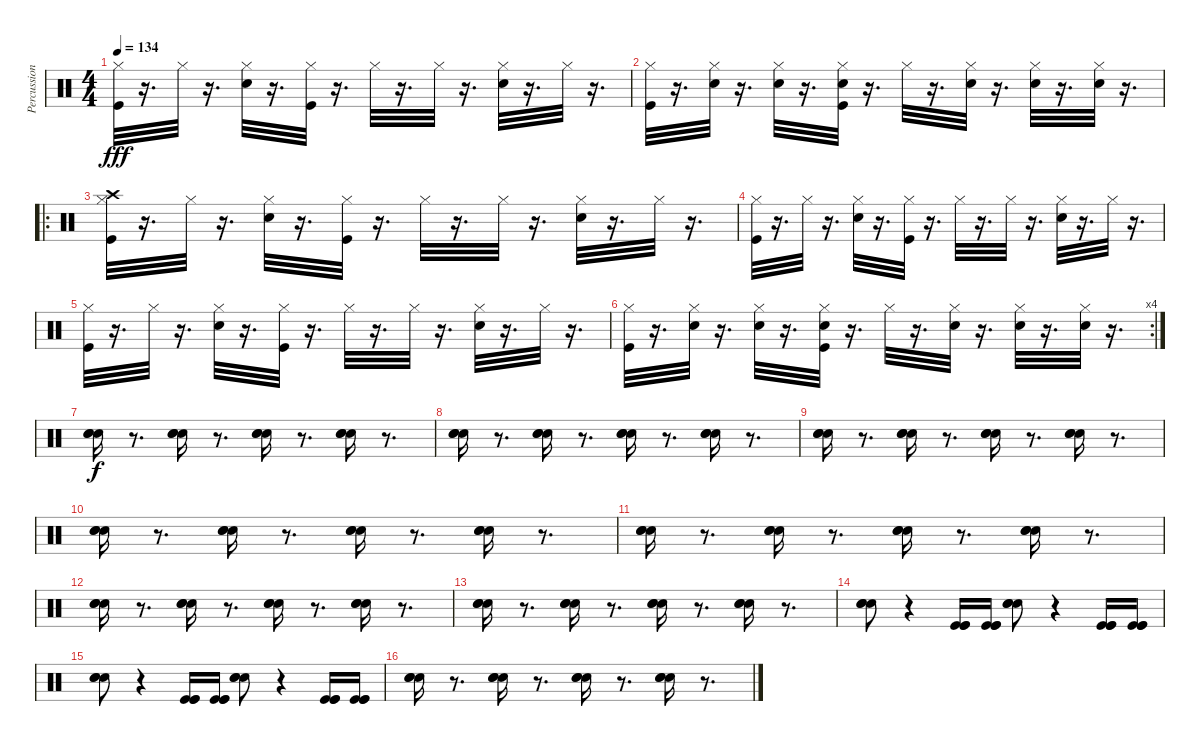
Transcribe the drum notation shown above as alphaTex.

\track ("Percussion (Rico)" "Percussion") {instrument percussion}
\staff {score}
\articulation defaults
\ts (4 4)
\tempo 134
\clef neutral
\ks c
("Kick (hit)" "Hi-Hat (closed)").32{dy fff} r.16{d} "Hi-Hat (closed)".32 r.16{d} ("Electric Snare (hit)" "Hi-Hat (closed)").32 r.16{d} ("Kick (hit)" "Hi-Hat (closed)").32 r.16{d} "Hi-Hat (closed)".32 r.16{d} "Hi-Hat (closed)".32 r.16{d} ("Electric Snare (hit)" "Hi-Hat (closed)").32 r.16{d} "Hi-Hat (closed)".32 r.16{d} |
("Kick (hit)" "Hi-Hat (closed)").32 r.16{d} ("Hi-Hat (closed)" "Electric Snare (hit)").32 r.16{d} ("Electric Snare (hit)" "Hi-Hat (closed)").32 r.16{d} ("Kick (hit)" "Hi-Hat (closed)" "Electric Snare (hit)").32 r.16{d} "Hi-Hat (closed)".32 r.16{d} ("Hi-Hat (closed)" "Electric Snare (hit)").32 r.16{d} ("Electric Snare (hit)" "Hi-Hat (closed)").32 r.16{d} ("Hi-Hat (closed)" "Electric Snare (hit)").32 r.16{d} |
\ro
("Kick (hit)" "Hi-Hat (closed)" "Crash high (hit)").32 r.16{d} "Hi-Hat (closed)".32 r.16{d} ("Electric Snare (hit)" "Hi-Hat (closed)").32 r.16{d} ("Kick (hit)" "Hi-Hat (closed)").32 r.16{d} "Hi-Hat (closed)".32 r.16{d} "Hi-Hat (closed)".32 r.16{d} ("Electric Snare (hit)" "Hi-Hat (closed)").32 r.16{d} "Hi-Hat (closed)".32 r.16{d} |
("Kick (hit)" "Hi-Hat (closed)").32 r.16{d} "Hi-Hat (closed)".32 r.16{d} ("Electric Snare (hit)" "Hi-Hat (closed)").32 r.16{d} ("Kick (hit)" "Hi-Hat (closed)").32 r.16{d} "Hi-Hat (closed)".32 r.16{d} "Hi-Hat (closed)".32 r.16{d} ("Electric Snare (hit)" "Hi-Hat (closed)").32 r.16{d} "Hi-Hat (closed)".32 r.16{d} |
("Kick (hit)" "Hi-Hat (closed)").32 r.16{d} "Hi-Hat (closed)".32 r.16{d} ("Electric Snare (hit)" "Hi-Hat (closed)").32 r.16{d} ("Kick (hit)" "Hi-Hat (closed)").32 r.16{d} "Hi-Hat (closed)".32 r.16{d} "Hi-Hat (closed)".32 r.16{d} ("Electric Snare (hit)" "Hi-Hat (closed)").32 r.16{d} "Hi-Hat (closed)".32 r.16{d} |
\rc 4
("Kick (hit)" "Hi-Hat (closed)").32 r.16{d} ("Hi-Hat (closed)" "Electric Snare (hit)").32 r.16{d} ("Electric Snare (hit)" "Hi-Hat (closed)").32 r.16{d} ("Kick (hit)" "Hi-Hat (closed)" "Electric Snare (hit)").32 r.16{d} "Hi-Hat (closed)".32 r.16{d} ("Hi-Hat (closed)" "Electric Snare (hit)").32 r.16{d} ("Electric Snare (hit)" "Hi-Hat (closed)").32 r.16{d} ("Hi-Hat (closed)" "Electric Snare (hit)").32 r.16{d} |
("Electric Snare (hit)" "Electric Snare (hit)" "Electric Snare (hit)").16{dy f} r.8{d} ("Electric Snare (hit)" "Electric Snare (hit)" "Electric Snare (hit)").16 r.8{d} ("Electric Snare (hit)" "Electric Snare (hit)" "Electric Snare (hit)").16 r.8{d} ("Electric Snare (hit)" "Electric Snare (hit)" "Electric Snare (hit)").16 r.8{d} |
("Electric Snare (hit)" "Electric Snare (hit)" "Electric Snare (hit)").16 r.8{d} ("Electric Snare (hit)" "Electric Snare (hit)" "Electric Snare (hit)").16 r.8{d} ("Electric Snare (hit)" "Electric Snare (hit)" "Electric Snare (hit)").16 r.8{d} ("Electric Snare (hit)" "Electric Snare (hit)" "Electric Snare (hit)").16 r.8{d} |
("Electric Snare (hit)" "Electric Snare (hit)" "Electric Snare (hit)").16 r.8{d} ("Electric Snare (hit)" "Electric Snare (hit)" "Electric Snare (hit)").16 r.8{d} ("Electric Snare (hit)" "Electric Snare (hit)" "Electric Snare (hit)").16 r.8{d} ("Electric Snare (hit)" "Electric Snare (hit)" "Electric Snare (hit)").16 r.8{d} |
("Electric Snare (hit)" "Electric Snare (hit)" "Electric Snare (hit)").16 r.8{d} ("Electric Snare (hit)" "Electric Snare (hit)" "Electric Snare (hit)").16 r.8{d} ("Electric Snare (hit)" "Electric Snare (hit)" "Electric Snare (hit)").16 r.8{d} ("Electric Snare (hit)" "Electric Snare (hit)" "Electric Snare (hit)").16 r.8{d} |
("Electric Snare (hit)" "Electric Snare (hit)" "Electric Snare (hit)").16 r.8{d} ("Electric Snare (hit)" "Electric Snare (hit)" "Electric Snare (hit)").16 r.8{d} ("Electric Snare (hit)" "Electric Snare (hit)" "Electric Snare (hit)").16 r.8{d} ("Electric Snare (hit)" "Electric Snare (hit)" "Electric Snare (hit)").16 r.8{d} |
("Electric Snare (hit)" "Electric Snare (hit)" "Electric Snare (hit)").16 r.8{d} ("Electric Snare (hit)" "Electric Snare (hit)" "Electric Snare (hit)").16 r.8{d} ("Electric Snare (hit)" "Electric Snare (hit)" "Electric Snare (hit)").16 r.8{d} ("Electric Snare (hit)" "Electric Snare (hit)" "Electric Snare (hit)").16 r.8{d} |
("Electric Snare (hit)" "Electric Snare (hit)" "Electric Snare (hit)").16 r.8{d} ("Electric Snare (hit)" "Electric Snare (hit)" "Electric Snare (hit)").16 r.8{d} ("Electric Snare (hit)" "Electric Snare (hit)" "Electric Snare (hit)").16 r.8{d} ("Electric Snare (hit)" "Electric Snare (hit)" "Electric Snare (hit)").16 r.8{d} |
("Electric Snare (hit)" "Electric Snare (hit)" "Electric Snare (hit)").8 r.4 ("Kick (hit)" "Kick (hit)" "Kick (hit)").16 ("Kick (hit)" "Kick (hit)" "Kick (hit)").16 ("Electric Snare (hit)" "Electric Snare (hit)" "Electric Snare (hit)").8 r.4 ("Kick (hit)" "Kick (hit)" "Kick (hit)").16 ("Kick (hit)" "Kick (hit)" "Kick (hit)").16 |
("Electric Snare (hit)" "Electric Snare (hit)" "Electric Snare (hit)").8 r.4 ("Kick (hit)" "Kick (hit)" "Kick (hit)").16 ("Kick (hit)" "Kick (hit)" "Kick (hit)").16 ("Electric Snare (hit)" "Electric Snare (hit)" "Electric Snare (hit)").8 r.4 ("Kick (hit)" "Kick (hit)" "Kick (hit)").16 ("Kick (hit)" "Kick (hit)" "Kick (hit)").16 |
("Electric Snare (hit)" "Electric Snare (hit)" "Electric Snare (hit)").16 r.8{d} ("Electric Snare (hit)" "Electric Snare (hit)" "Electric Snare (hit)").16 r.8{d} ("Electric Snare (hit)" "Electric Snare (hit)" "Electric Snare (hit)").16 r.8{d} ("Electric Snare (hit)" "Electric Snare (hit)" "Electric Snare (hit)").16 r.8{d}
